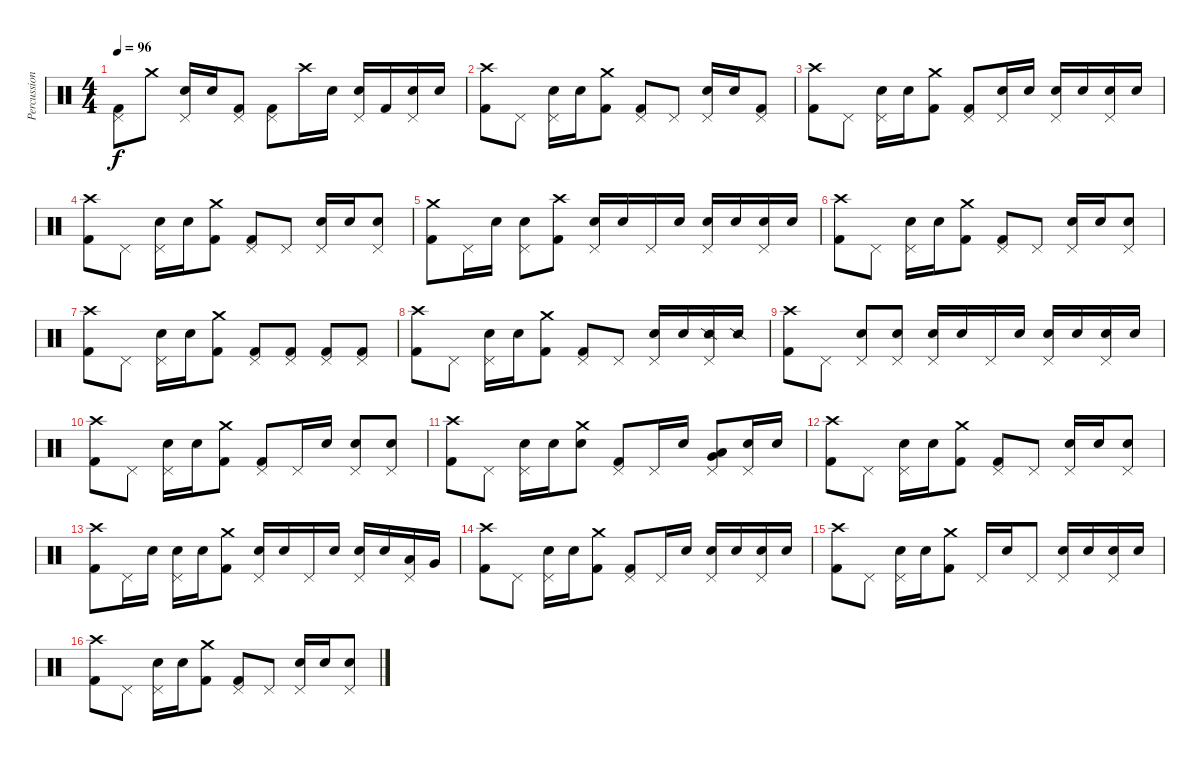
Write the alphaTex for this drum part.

\track ("Percussion" "Percussion") {instrument percussion}
\staff {score}
\articulation defaults
\ts (4 4)
\tempo 96
\clef neutral
\ks c
("Pedal Hi-Hat (hit)" "Kick (hit) 2").8{dy f} "Crash medium (hit)".8 ("Pedal Hi-Hat (hit)" "Electric Snare (hit)").16 "Electric Snare (hit)".16 ("Pedal Hi-Hat (hit)" "Kick (hit) 2").8 ("Pedal Hi-Hat (hit)" "Kick (hit) 2").8 "Crash high (hit)".16 "Electric Snare (hit)".16 ("Pedal Hi-Hat (hit)" "Electric Snare (hit)").16 "Kick (hit) 2".16 ("Pedal Hi-Hat (hit)" "Electric Snare (hit)").16 "Electric Snare (hit)".16 |
("Crash high (hit)" "Kick (hit) 2").8 "Pedal Hi-Hat (hit)".8 ("Pedal Hi-Hat (hit)" "Electric Snare (hit)").16 "Electric Snare (hit)".16 ("Crash medium (hit)" "Kick (hit) 2").8 ("Pedal Hi-Hat (hit)" "Kick (hit) 2").8 "Pedal Hi-Hat (hit)".8 ("Pedal Hi-Hat (hit)" "Electric Snare (hit)").16 "Electric Snare (hit)".16 ("Pedal Hi-Hat (hit)" "Kick (hit) 2").8 |
("Crash high (hit)" "Kick (hit) 2").8 "Pedal Hi-Hat (hit)".8 ("Pedal Hi-Hat (hit)" "Electric Snare (hit)").16 "Electric Snare (hit)".16 ("Crash medium (hit)" "Kick (hit) 2").8 ("Pedal Hi-Hat (hit)" "Kick (hit) 2").8 ("Pedal Hi-Hat (hit)" "Electric Snare (hit)").16 "Electric Snare (hit)".16 ("Pedal Hi-Hat (hit)" "Electric Snare (hit)").16 "Electric Snare (hit)".16 ("Pedal Hi-Hat (hit)" "Electric Snare (hit)").16 "Electric Snare (hit)".16 |
("Crash high (hit)" "Kick (hit) 2").8 "Pedal Hi-Hat (hit)".8 ("Pedal Hi-Hat (hit)" "Electric Snare (hit)").16 "Electric Snare (hit)".16 ("Crash medium (hit)" "Kick (hit) 2").8 ("Pedal Hi-Hat (hit)" "Kick (hit) 2").8 "Pedal Hi-Hat (hit)".8 ("Pedal Hi-Hat (hit)" "Electric Snare (hit)").16 "Electric Snare (hit)".16 ("Pedal Hi-Hat (hit)" "Electric Snare (hit)").8 |
("Crash medium (hit)" "Kick (hit) 2").8 "Pedal Hi-Hat (hit)".16 "Electric Snare (hit)".16 ("Pedal Hi-Hat (hit)" "Electric Snare (hit)").8 ("Crash high (hit)" "Kick (hit) 2").8 ("Pedal Hi-Hat (hit)" "Electric Snare (hit)").16 "Electric Snare (hit)".16 "Pedal Hi-Hat (hit)".16 "Electric Snare (hit)".16 ("Pedal Hi-Hat (hit)" "Electric Snare (hit)").16 "Electric Snare (hit)".16 ("Pedal Hi-Hat (hit)" "Electric Snare (hit)").16 "Electric Snare (hit)".16 |
("Crash high (hit)" "Kick (hit) 2").8 "Pedal Hi-Hat (hit)".8 ("Pedal Hi-Hat (hit)" "Electric Snare (hit)").16 "Electric Snare (hit)".16 ("Crash medium (hit)" "Kick (hit) 2").8 ("Pedal Hi-Hat (hit)" "Kick (hit) 2").8 "Pedal Hi-Hat (hit)".8 ("Pedal Hi-Hat (hit)" "Electric Snare (hit)").16 "Electric Snare (hit)".16 ("Pedal Hi-Hat (hit)" "Electric Snare (hit)").8 |
("Crash high (hit)" "Kick (hit) 2").8 "Pedal Hi-Hat (hit)".8 ("Pedal Hi-Hat (hit)" "Electric Snare (hit)").16 "Electric Snare (hit)".16 ("Crash medium (hit)" "Kick (hit) 2").8 ("Pedal Hi-Hat (hit)" "Kick (hit) 2").8 ("Pedal Hi-Hat (hit)" "Kick (hit) 2").8 ("Pedal Hi-Hat (hit)" "Kick (hit) 2").8 ("Pedal Hi-Hat (hit)" "Kick (hit) 2").8 |
("Crash high (hit)" "Kick (hit) 2").8 "Pedal Hi-Hat (hit)".8 ("Pedal Hi-Hat (hit)" "Electric Snare (hit)").16 "Electric Snare (hit)".16 ("Crash medium (hit)" "Kick (hit) 2").8 ("Pedal Hi-Hat (hit)" "Kick (hit) 2").8 "Pedal Hi-Hat (hit)".8 ("Pedal Hi-Hat (hit)" "Electric Snare (hit)").16 "Electric Snare (hit)".16 ("Pedal Hi-Hat (hit)" "Snare (side stick) 2").16 "Snare (side stick) 2".16 |
("Crash high (hit)" "Kick (hit) 2").8 "Pedal Hi-Hat (hit)".8 ("Pedal Hi-Hat (hit)" "Electric Snare (hit)").8 ("Pedal Hi-Hat (hit)" "Electric Snare (hit)").8 ("Pedal Hi-Hat (hit)" "Electric Snare (hit)").16 "Electric Snare (hit)".16 "Pedal Hi-Hat (hit)".16 "Electric Snare (hit)".16 ("Pedal Hi-Hat (hit)" "Electric Snare (hit)").16 "Electric Snare (hit)".16 ("Pedal Hi-Hat (hit)" "Electric Snare (hit)").16 "Electric Snare (hit)".16 |
("Crash high (hit)" "Kick (hit) 2").8 "Pedal Hi-Hat (hit)".8 ("Pedal Hi-Hat (hit)" "Electric Snare (hit)").16 "Electric Snare (hit)".16 ("Crash medium (hit)" "Kick (hit) 2").8 ("Pedal Hi-Hat (hit)" "Kick (hit) 2").8 "Pedal Hi-Hat (hit)".16 "Electric Snare (hit)".16 ("Pedal Hi-Hat (hit)" "Electric Snare (hit)").8 ("Pedal Hi-Hat (hit)" "Electric Snare (hit)").8 |
("Crash high (hit)" "Kick (hit) 2").8 "Pedal Hi-Hat (hit)".8 ("Pedal Hi-Hat (hit)" "Electric Snare (hit)").16 "Electric Snare (hit)".16 ("Crash medium (hit)" "Electric Snare (hit)").8 ("Pedal Hi-Hat (hit)" "Kick (hit) 2").8 "Pedal Hi-Hat (hit)".16 "Electric Snare (hit)".16 ("Pedal Hi-Hat (hit)" "Very Low Tom (hit)" "Low Floor Tom (hit)").8 ("Pedal Hi-Hat (hit)" "Electric Snare (hit)").16 "Electric Snare (hit)".16 |
("Crash high (hit)" "Kick (hit) 2").8 "Pedal Hi-Hat (hit)".8 ("Pedal Hi-Hat (hit)" "Electric Snare (hit)").16 "Electric Snare (hit)".16 ("Crash medium (hit)" "Kick (hit) 2").8 ("Pedal Hi-Hat (hit)" "Kick (hit) 2").8 "Pedal Hi-Hat (hit)".8 ("Pedal Hi-Hat (hit)" "Electric Snare (hit)").16 "Electric Snare (hit)".16 ("Pedal Hi-Hat (hit)" "Electric Snare (hit)").8 |
("Crash high (hit)" "Kick (hit) 2").8 "Pedal Hi-Hat (hit)".16 "Electric Snare (hit)".16 ("Pedal Hi-Hat (hit)" "Electric Snare (hit)").16 "Electric Snare (hit)".16 ("Crash medium (hit)" "Kick (hit) 2").8 ("Pedal Hi-Hat (hit)" "Electric Snare (hit)").16 "Electric Snare (hit)".16 "Pedal Hi-Hat (hit)".16 "Electric Snare (hit)".16 ("Pedal Hi-Hat (hit)" "Electric Snare (hit)").16 "Electric Snare (hit)".16 ("Pedal Hi-Hat (hit)" "Low Tom (hit)").16 "Very Low Tom (hit)".16 |
("Crash high (hit)" "Kick (hit) 2").8 "Pedal Hi-Hat (hit)".8 ("Pedal Hi-Hat (hit)" "Electric Snare (hit)").16 "Electric Snare (hit)".16 ("Crash medium (hit)" "Kick (hit) 2").8 ("Pedal Hi-Hat (hit)" "Kick (hit) 2").8 "Pedal Hi-Hat (hit)".16 "Electric Snare (hit)".16 ("Pedal Hi-Hat (hit)" "Electric Snare (hit)").16 "Electric Snare (hit)".16 ("Pedal Hi-Hat (hit)" "Electric Snare (hit)").16 "Electric Snare (hit)".16 |
("Crash high (hit)" "Kick (hit) 2").8 "Pedal Hi-Hat (hit)".8 ("Pedal Hi-Hat (hit)" "Electric Snare (hit)").16 "Electric Snare (hit)".16 ("Crash medium (hit)" "Kick (hit) 2").8 "Pedal Hi-Hat (hit)".16 "Electric Snare (hit)".16 "Pedal Hi-Hat (hit)".8 ("Pedal Hi-Hat (hit)" "Electric Snare (hit)").16 "Electric Snare (hit)".16 ("Pedal Hi-Hat (hit)" "Electric Snare (hit)").16 "Electric Snare (hit)".16 |
("Crash high (hit)" "Kick (hit) 2").8 "Pedal Hi-Hat (hit)".8 ("Pedal Hi-Hat (hit)" "Electric Snare (hit)").16 "Electric Snare (hit)".16 ("Crash medium (hit)" "Kick (hit) 2").8 ("Pedal Hi-Hat (hit)" "Kick (hit) 2").8 "Pedal Hi-Hat (hit)".8 ("Pedal Hi-Hat (hit)" "Electric Snare (hit)").16 "Electric Snare (hit)".16 ("Pedal Hi-Hat (hit)" "Electric Snare (hit)").8
